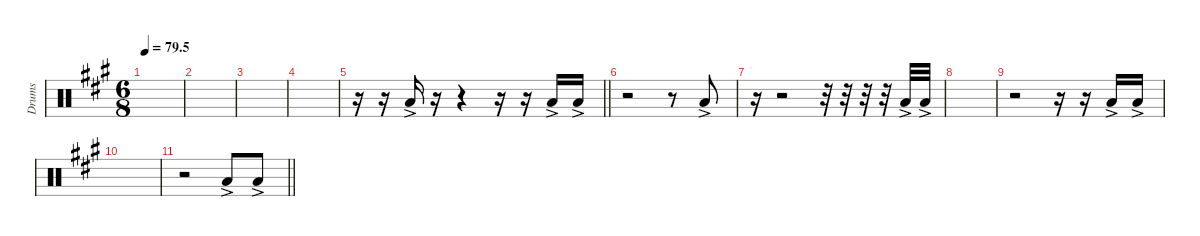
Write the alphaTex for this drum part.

\defaultSystemsLayout 4
\hideDynamics
\bracketExtendMode nobrackets
\otherSystemsTrackNameOrientation horizontal
\track ("Tom 03" "Drums") {instrument percussion}
\staff {score}
\articulation defaults
\ts (6 8)
\tempo
79.5
\accidentals auto
\clef neutral
\ottava regular
\simile none
\scale
0.333333
\ks a
|
\scale
0.333333 |
\scale
0.333333 |
\scale
0.333333 |
\scale
0.333333
\barLineRight lightlight
r.16 r.16 "Low Tom (hit)"{ac acc forcenatural}.16 r.16 r.4 r.16 r.16 "Low Tom (hit)"{ac acc forcenatural}.16 "Low Tom (hit)"{ac acc forcenatural}.16 |
\scale
0.333333 r.2 r.8 "Low Tom (hit)"{ac acc forcenatural}.8 |
\scale
0.333333 r.16 r.2 r.32 r.32 r.32 r.32 "Low Tom (hit)"{ac acc forcenatural}.32 "Low Tom (hit)"{ac acc forcenatural}.32 |
\scale
0.333333 |
\scale
0.333333 r.2 r.16 r.16 "Low Tom (hit)"{ac acc forcenatural}.16 "Low Tom (hit)"{ac acc forcenatural}.16 |
\scale
0.333333 |
\scale
0.333333
\barLineRight lightlight
r.2 "Low Tom (hit)"{ac acc forcenatural}.8 "Low Tom (hit)"{ac acc forcenatural}.8 |
\scale
0.333333 |
\scale
0.333333 |
\scale
0.333333 |
\scale
0.333333 |
\scale
0.333333
